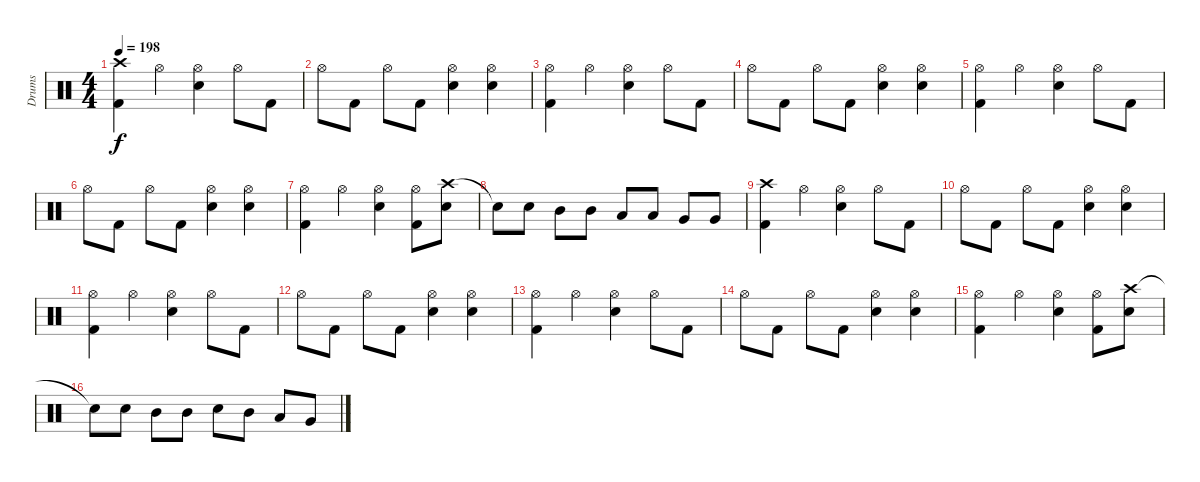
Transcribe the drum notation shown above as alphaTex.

\track ("Drums" "Drums") {instrument percussion}
\staff {score}
\articulation defaults
\ts (4 4)
\tempo 198
\clef neutral
\ks c
("Crash high (hit)" "Kick (hit) 2").4{dy f} "Hi-Hat (open)".4 ("Hi-Hat (open)" "Snare (hit) 2").4 "Hi-Hat (open)".8 "Kick (hit) 2".8 |
"Hi-Hat (open)".8 "Kick (hit) 2".8 "Hi-Hat (open)".8 "Kick (hit) 2".8 ("Hi-Hat (open)" "Snare (hit) 2").4 ("Hi-Hat (open)" "Snare (hit) 2").4 |
("Hi-Hat (open)" "Kick (hit) 2").4 "Hi-Hat (open)".4 ("Hi-Hat (open)" "Snare (hit) 2").4 "Hi-Hat (open)".8 "Kick (hit) 2".8 |
"Hi-Hat (open)".8 "Kick (hit) 2".8 "Hi-Hat (open)".8 "Kick (hit) 2".8 ("Hi-Hat (open)" "Snare (hit) 2").4 ("Hi-Hat (open)" "Snare (hit) 2").4 |
("Hi-Hat (open)" "Kick (hit) 2").4 "Hi-Hat (open)".4 ("Hi-Hat (open)" "Snare (hit) 2").4 "Hi-Hat (open)".8 "Kick (hit) 2".8 |
"Hi-Hat (open)".8 "Kick (hit) 2".8 "Hi-Hat (open)".8 "Kick (hit) 2".8 ("Hi-Hat (open)" "Snare (hit) 2").4 ("Hi-Hat (open)" "Snare (hit) 2").4 |
("Hi-Hat (open)" "Kick (hit) 2").4 "Hi-Hat (open)".4 ("Hi-Hat (open)" "Snare (hit) 2").4 ("Hi-Hat (open)" "Kick (hit) 2").8 ("Crash high (hit)" "Snare (hit) 2").8 |
"Snare (hit)"{t}.8 "Snare (hit) 2".8 "Mid Tom (hit)".8 "Mid Tom (hit)".8 "Low Tom (hit)".8 "Low Tom (hit)".8 "Very Low Tom (hit)".8 "Very Low Tom (hit)".8 |
("Crash high (hit)" "Kick (hit) 2").4 "Hi-Hat (open)".4 ("Hi-Hat (open)" "Snare (hit) 2").4 "Hi-Hat (open)".8 "Kick (hit) 2".8 |
"Hi-Hat (open)".8 "Kick (hit) 2".8 "Hi-Hat (open)".8 "Kick (hit) 2".8 ("Hi-Hat (open)" "Snare (hit) 2").4 ("Hi-Hat (open)" "Snare (hit) 2").4 |
("Hi-Hat (open)" "Kick (hit) 2").4 "Hi-Hat (open)".4 ("Hi-Hat (open)" "Snare (hit) 2").4 "Hi-Hat (open)".8 "Kick (hit) 2".8 |
"Hi-Hat (open)".8 "Kick (hit) 2".8 "Hi-Hat (open)".8 "Kick (hit) 2".8 ("Hi-Hat (open)" "Snare (hit) 2").4 ("Hi-Hat (open)" "Snare (hit) 2").4 |
("Hi-Hat (open)" "Kick (hit) 2").4 "Hi-Hat (open)".4 ("Hi-Hat (open)" "Snare (hit) 2").4 "Hi-Hat (open)".8 "Kick (hit) 2".8 |
"Hi-Hat (open)".8 "Kick (hit) 2".8 "Hi-Hat (open)".8 "Kick (hit) 2".8 ("Hi-Hat (open)" "Snare (hit) 2").4 ("Hi-Hat (open)" "Snare (hit) 2").4 |
("Hi-Hat (open)" "Kick (hit) 2").4 "Hi-Hat (open)".4 ("Hi-Hat (open)" "Snare (hit) 2").4 ("Hi-Hat (open)" "Kick (hit) 2").8 ("Crash high (hit)" "Snare (hit) 2").8 |
"Snare (hit)"{t}.8 "Snare (hit) 2".8 "Mid Tom (hit)".8 "Mid Tom (hit)".8 "Snare (hit) 2".8 "Mid Tom (hit)".8 "Low Tom (hit)".8 "Very Low Tom (hit)".8
